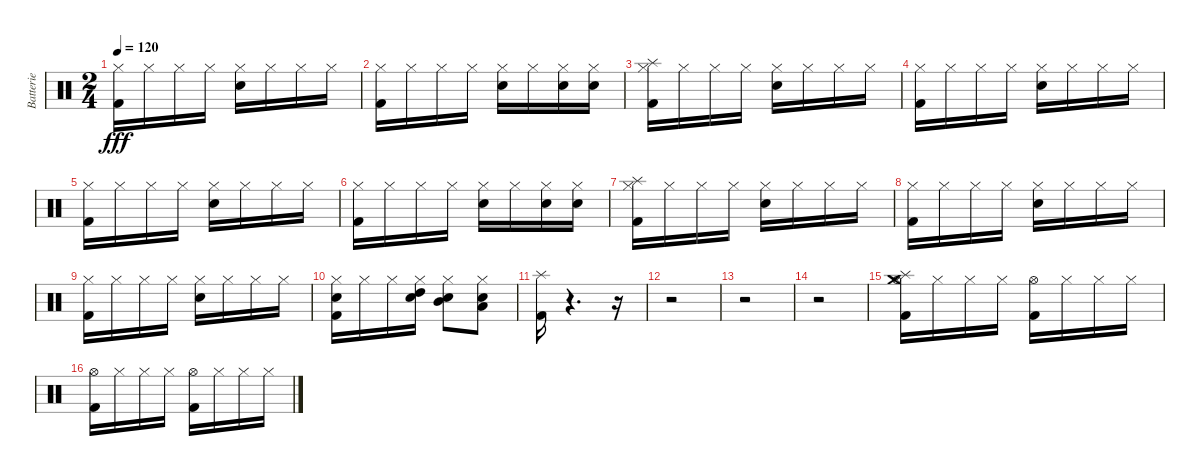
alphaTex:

\track ("Batterie" "Batterie") {instrument percussion}
\staff {score}
\articulation defaults
\ts (2 4)
\tempo 120
\clef neutral
\ks c
("Kick (hit) 2" "Hi-Hat (closed)").16{dy fff} "Hi-Hat (closed)".16 "Hi-Hat (closed)".16 "Hi-Hat (closed)".16 ("Hi-Hat (closed)" "Electric Snare (hit)").16 "Hi-Hat (closed)".16 "Hi-Hat (closed)".16 "Hi-Hat (closed)".16 |
("Kick (hit) 2" "Hi-Hat (closed)").16 "Hi-Hat (closed)".16 "Hi-Hat (closed)".16 "Hi-Hat (closed)".16 ("Electric Snare (hit)" "Hi-Hat (closed)").16 "Hi-Hat (closed)".16 ("Electric Snare (hit)" "Hi-Hat (closed)").16 ("Electric Snare (hit)" "Hi-Hat (closed)").16 |
("Kick (hit) 2" "Hi-Hat (closed)" "Splash (hit)").16 "Hi-Hat (closed)".16 "Hi-Hat (closed)".16 "Hi-Hat (closed)".16 ("Hi-Hat (closed)" "Electric Snare (hit)").16 "Hi-Hat (closed)".16 "Hi-Hat (closed)".16 "Hi-Hat (closed)".16 |
("Kick (hit) 2" "Hi-Hat (closed)").16 "Hi-Hat (closed)".16 "Hi-Hat (closed)".16 "Hi-Hat (closed)".16 ("Hi-Hat (closed)" "Electric Snare (hit)").16 "Hi-Hat (closed)".16 "Hi-Hat (closed)".16 "Hi-Hat (closed)".16 |
("Kick (hit) 2" "Hi-Hat (closed)").16 "Hi-Hat (closed)".16 "Hi-Hat (closed)".16 "Hi-Hat (closed)".16 ("Hi-Hat (closed)" "Electric Snare (hit)").16 "Hi-Hat (closed)".16 "Hi-Hat (closed)".16 "Hi-Hat (closed)".16 |
("Kick (hit) 2" "Hi-Hat (closed)").16 "Hi-Hat (closed)".16 "Hi-Hat (closed)".16 "Hi-Hat (closed)".16 ("Electric Snare (hit)" "Hi-Hat (closed)").16 "Hi-Hat (closed)".16 ("Electric Snare (hit)" "Hi-Hat (closed)").16 ("Electric Snare (hit)" "Hi-Hat (closed)").16 |
("Kick (hit) 2" "Hi-Hat (closed)" "Splash (hit)").16 "Hi-Hat (closed)".16 "Hi-Hat (closed)".16 "Hi-Hat (closed)".16 ("Hi-Hat (closed)" "Electric Snare (hit)").16 "Hi-Hat (closed)".16 "Hi-Hat (closed)".16 "Hi-Hat (closed)".16 |
("Kick (hit) 2" "Hi-Hat (closed)").16 "Hi-Hat (closed)".16 "Hi-Hat (closed)".16 "Hi-Hat (closed)".16 ("Hi-Hat (closed)" "Electric Snare (hit)").16 "Hi-Hat (closed)".16 "Hi-Hat (closed)".16 "Hi-Hat (closed)".16 |
("Kick (hit) 2" "Hi-Hat (closed)").16 "Hi-Hat (closed)".16 "Hi-Hat (closed)".16 "Hi-Hat (closed)".16 ("Hi-Hat (closed)" "Electric Snare (hit)").16 "Hi-Hat (closed)".16 "Hi-Hat (closed)".16 "Hi-Hat (closed)".16 |
("Kick (hit) 2" "Hi-Hat (closed)" "Electric Snare (hit)").16 "Hi-Hat (closed)".16 "Hi-Hat (closed)".16 ("Hi-Hat (closed)" "High Tom (hit)" "Electric Snare (hit)").16 ("Hi-Hat (closed)" "Mid Tom (hit)" "Electric Snare (hit)").8 ("Hi-Hat (closed)" "Low Tom (hit)" "Electric Snare (hit)").8 |
("Kick (hit) 2" "Splash (hit)").16 r.4{d} r.16 |
r.2 |
r.2 |
r.2 |
("Kick (hit) 2" "Crash medium (hit)" "Splash (hit)" "Hi-Hat (open)").16 "Hi-Hat (closed)".16 "Hi-Hat (closed)".16 "Hi-Hat (closed)".16 ("Kick (hit) 2" "Hi-Hat (open)").16 "Hi-Hat (closed)".16 "Hi-Hat (closed)".16 "Hi-Hat (closed)".16 |
("Kick (hit) 2" "Hi-Hat (open)").16 "Hi-Hat (closed)".16 "Hi-Hat (closed)".16 "Hi-Hat (closed)".16 ("Kick (hit) 2" "Hi-Hat (open)").16 "Hi-Hat (closed)".16 "Hi-Hat (closed)".16 "Hi-Hat (closed)".16
